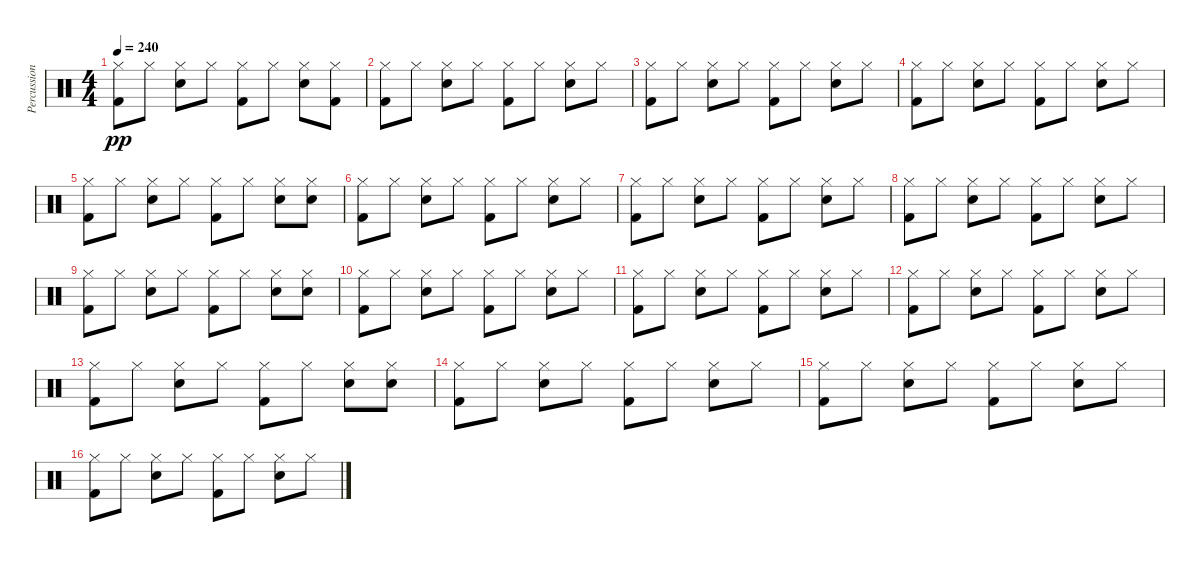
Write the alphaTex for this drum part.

\track ("Percussion" "Percussion") {instrument percussion}
\staff {score}
\articulation defaults
\ts (4 4)
\tempo 240
\clef neutral
\ks c
("Kick (hit) 2" "Hi-Hat (closed)").8{dy pp} "Hi-Hat (closed)".8 ("Electric Snare (hit)" "Hi-Hat (closed)").8 "Hi-Hat (closed)".8 ("Kick (hit) 2" "Hi-Hat (closed)").8 "Hi-Hat (closed)".8 ("Electric Snare (hit)" "Hi-Hat (closed)").8 ("Kick (hit) 2" "Hi-Hat (closed)").8 |
("Kick (hit) 2" "Hi-Hat (closed)").8 "Hi-Hat (closed)".8 ("Electric Snare (hit)" "Hi-Hat (closed)").8 "Hi-Hat (closed)".8 ("Kick (hit) 2" "Hi-Hat (closed)").8 "Hi-Hat (closed)".8 ("Electric Snare (hit)" "Hi-Hat (closed)").8 "Hi-Hat (closed)".8 |
("Kick (hit) 2" "Hi-Hat (closed)").8 "Hi-Hat (closed)".8 ("Electric Snare (hit)" "Hi-Hat (closed)").8 "Hi-Hat (closed)".8 ("Kick (hit) 2" "Hi-Hat (closed)").8 "Hi-Hat (closed)".8 ("Electric Snare (hit)" "Hi-Hat (closed)").8 "Hi-Hat (closed)".8 |
("Kick (hit) 2" "Hi-Hat (closed)").8 "Hi-Hat (closed)".8 ("Electric Snare (hit)" "Hi-Hat (closed)").8 "Hi-Hat (closed)".8 ("Kick (hit) 2" "Hi-Hat (closed)").8 "Hi-Hat (closed)".8 ("Electric Snare (hit)" "Hi-Hat (closed)").8 "Hi-Hat (closed)".8 |
("Kick (hit) 2" "Hi-Hat (closed)").8 "Hi-Hat (closed)".8 ("Electric Snare (hit)" "Hi-Hat (closed)").8 "Hi-Hat (closed)".8 ("Kick (hit) 2" "Hi-Hat (closed)").8 "Hi-Hat (closed)".8 ("Electric Snare (hit)" "Hi-Hat (closed)").8 ("Electric Snare (hit)" "Hi-Hat (closed)").8 |
("Kick (hit) 2" "Hi-Hat (closed)").8 "Hi-Hat (closed)".8 ("Electric Snare (hit)" "Hi-Hat (closed)").8 "Hi-Hat (closed)".8 ("Kick (hit) 2" "Hi-Hat (closed)").8 "Hi-Hat (closed)".8 ("Electric Snare (hit)" "Hi-Hat (closed)").8 "Hi-Hat (closed)".8 |
("Kick (hit) 2" "Hi-Hat (closed)").8 "Hi-Hat (closed)".8 ("Electric Snare (hit)" "Hi-Hat (closed)").8 "Hi-Hat (closed)".8 ("Kick (hit) 2" "Hi-Hat (closed)").8 "Hi-Hat (closed)".8 ("Electric Snare (hit)" "Hi-Hat (closed)").8 "Hi-Hat (closed)".8 |
("Kick (hit) 2" "Hi-Hat (closed)").8 "Hi-Hat (closed)".8 ("Electric Snare (hit)" "Hi-Hat (closed)").8 "Hi-Hat (closed)".8 ("Kick (hit) 2" "Hi-Hat (closed)").8 "Hi-Hat (closed)".8 ("Electric Snare (hit)" "Hi-Hat (closed)").8 "Hi-Hat (closed)".8 |
("Kick (hit) 2" "Hi-Hat (closed)").8 "Hi-Hat (closed)".8 ("Electric Snare (hit)" "Hi-Hat (closed)").8 "Hi-Hat (closed)".8 ("Kick (hit) 2" "Hi-Hat (closed)").8 "Hi-Hat (closed)".8 ("Electric Snare (hit)" "Hi-Hat (closed)").8 ("Electric Snare (hit)" "Hi-Hat (closed)").8 |
("Kick (hit) 2" "Hi-Hat (closed)").8 "Hi-Hat (closed)".8 ("Electric Snare (hit)" "Hi-Hat (closed)").8 "Hi-Hat (closed)".8 ("Kick (hit) 2" "Hi-Hat (closed)").8 "Hi-Hat (closed)".8 ("Electric Snare (hit)" "Hi-Hat (closed)").8 "Hi-Hat (closed)".8 |
("Kick (hit) 2" "Hi-Hat (closed)").8 "Hi-Hat (closed)".8 ("Electric Snare (hit)" "Hi-Hat (closed)").8 "Hi-Hat (closed)".8 ("Kick (hit) 2" "Hi-Hat (closed)").8 "Hi-Hat (closed)".8 ("Electric Snare (hit)" "Hi-Hat (closed)").8 "Hi-Hat (closed)".8 |
("Kick (hit) 2" "Hi-Hat (closed)").8 "Hi-Hat (closed)".8 ("Electric Snare (hit)" "Hi-Hat (closed)").8 "Hi-Hat (closed)".8 ("Kick (hit) 2" "Hi-Hat (closed)").8 "Hi-Hat (closed)".8 ("Electric Snare (hit)" "Hi-Hat (closed)").8 "Hi-Hat (closed)".8 |
("Kick (hit) 2" "Hi-Hat (closed)").8 "Hi-Hat (closed)".8 ("Electric Snare (hit)" "Hi-Hat (closed)").8 "Hi-Hat (closed)".8 ("Kick (hit) 2" "Hi-Hat (closed)").8 "Hi-Hat (closed)".8 ("Electric Snare (hit)" "Hi-Hat (closed)").8 ("Electric Snare (hit)" "Hi-Hat (closed)").8 |
("Kick (hit) 2" "Hi-Hat (closed)").8 "Hi-Hat (closed)".8 ("Electric Snare (hit)" "Hi-Hat (closed)").8 "Hi-Hat (closed)".8 ("Kick (hit) 2" "Hi-Hat (closed)").8 "Hi-Hat (closed)".8 ("Electric Snare (hit)" "Hi-Hat (closed)").8 "Hi-Hat (closed)".8 |
("Kick (hit) 2" "Hi-Hat (closed)").8 "Hi-Hat (closed)".8 ("Electric Snare (hit)" "Hi-Hat (closed)").8 "Hi-Hat (closed)".8 ("Kick (hit) 2" "Hi-Hat (closed)").8 "Hi-Hat (closed)".8 ("Electric Snare (hit)" "Hi-Hat (closed)").8 "Hi-Hat (closed)".8 |
("Kick (hit) 2" "Hi-Hat (closed)").8 "Hi-Hat (closed)".8 ("Electric Snare (hit)" "Hi-Hat (closed)").8 "Hi-Hat (closed)".8 ("Kick (hit) 2" "Hi-Hat (closed)").8 "Hi-Hat (closed)".8 ("Electric Snare (hit)" "Hi-Hat (closed)").8 "Hi-Hat (closed)".8
